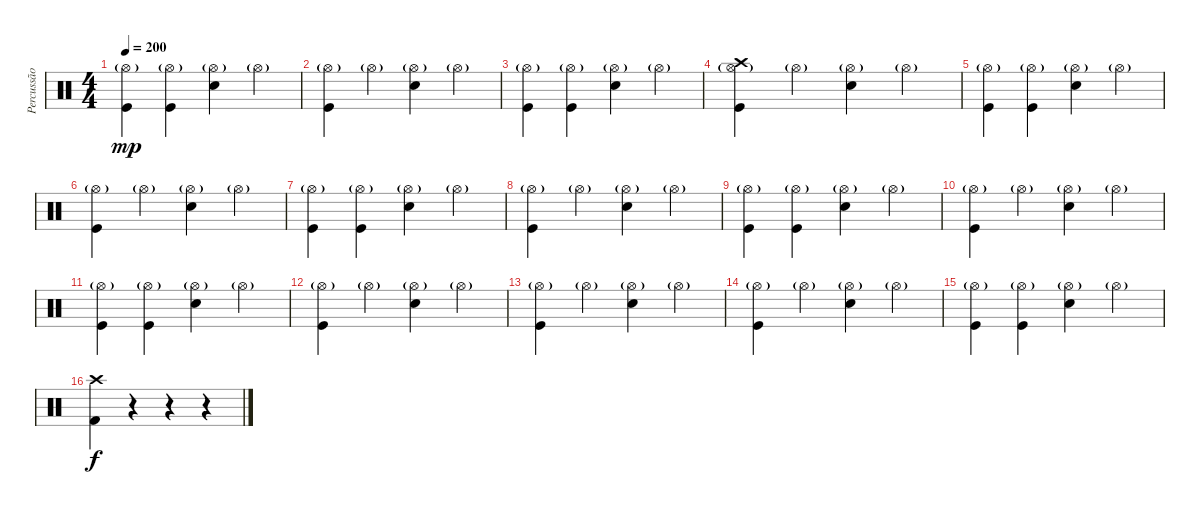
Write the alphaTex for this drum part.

\track ("Percussão" "Percussão") {instrument percussion}
\staff {score}
\articulation defaults
\ts (4 4)
\tempo 200
\clef neutral
\ks c
("Hi-Hat (open)"{g} "Kick (hit)").4{dy mp} ("Hi-Hat (open)"{g} "Kick (hit)").4 ("Hi-Hat (open)"{g} "Electric Snare (hit)").4 "Hi-Hat (open)"{g}.4 |
("Hi-Hat (open)"{g} "Kick (hit)").4 "Hi-Hat (open)"{g}.4 ("Hi-Hat (open)"{g} "Electric Snare (hit)").4 "Hi-Hat (open)"{g}.4 |
("Hi-Hat (open)"{g} "Kick (hit)").4 ("Hi-Hat (open)"{g} "Kick (hit)").4 ("Hi-Hat (open)"{g} "Electric Snare (hit)").4 "Hi-Hat (open)"{g}.4 |
("Hi-Hat (open)"{g} "Crash high (hit)" "Kick (hit)").4 "Hi-Hat (open)"{g}.4 ("Hi-Hat (open)"{g} "Electric Snare (hit)").4 "Hi-Hat (open)"{g}.4 |
("Hi-Hat (open)"{g} "Kick (hit)").4 ("Hi-Hat (open)"{g} "Kick (hit)").4 ("Hi-Hat (open)"{g} "Electric Snare (hit)").4 "Hi-Hat (open)"{g}.4 |
("Hi-Hat (open)"{g} "Kick (hit)").4 "Hi-Hat (open)"{g}.4 ("Hi-Hat (open)"{g} "Electric Snare (hit)").4 "Hi-Hat (open)"{g}.4 |
("Hi-Hat (open)"{g} "Kick (hit)").4 ("Hi-Hat (open)"{g} "Kick (hit)").4 ("Hi-Hat (open)"{g} "Electric Snare (hit)").4 "Hi-Hat (open)"{g}.4 |
("Hi-Hat (open)"{g} "Kick (hit)").4 "Hi-Hat (open)"{g}.4 ("Hi-Hat (open)"{g} "Electric Snare (hit)").4 "Hi-Hat (open)"{g}.4 |
("Hi-Hat (open)"{g} "Kick (hit)").4 ("Hi-Hat (open)"{g} "Kick (hit)").4 ("Hi-Hat (open)"{g} "Electric Snare (hit)").4 "Hi-Hat (open)"{g}.4 |
("Hi-Hat (open)"{g} "Kick (hit)").4 "Hi-Hat (open)"{g}.4 ("Hi-Hat (open)"{g} "Electric Snare (hit)").4 "Hi-Hat (open)"{g}.4 |
("Hi-Hat (open)"{g} "Kick (hit)").4 ("Hi-Hat (open)"{g} "Kick (hit)").4 ("Hi-Hat (open)"{g} "Electric Snare (hit)").4 "Hi-Hat (open)"{g}.4 |
("Hi-Hat (open)"{g} "Kick (hit)").4 "Hi-Hat (open)"{g}.4 ("Hi-Hat (open)"{g} "Electric Snare (hit)").4 "Hi-Hat (open)"{g}.4 |
("Hi-Hat (open)"{g} "Kick (hit)").4 "Hi-Hat (open)"{g}.4 ("Hi-Hat (open)"{g} "Electric Snare (hit)").4 "Hi-Hat (open)"{g}.4 |
("Hi-Hat (open)"{g} "Kick (hit)").4 "Hi-Hat (open)"{g}.4 ("Hi-Hat (open)"{g} "Electric Snare (hit)").4 "Hi-Hat (open)"{g}.4 |
("Hi-Hat (open)"{g} "Kick (hit)").4 ("Hi-Hat (open)"{g} "Kick (hit)").4 ("Hi-Hat (open)"{g} "Electric Snare (hit)").4 "Hi-Hat (open)"{g}.4 |
("Crash high (hit)" "Kick (hit) 2").4{dy f} r.4 r.4 r.4
